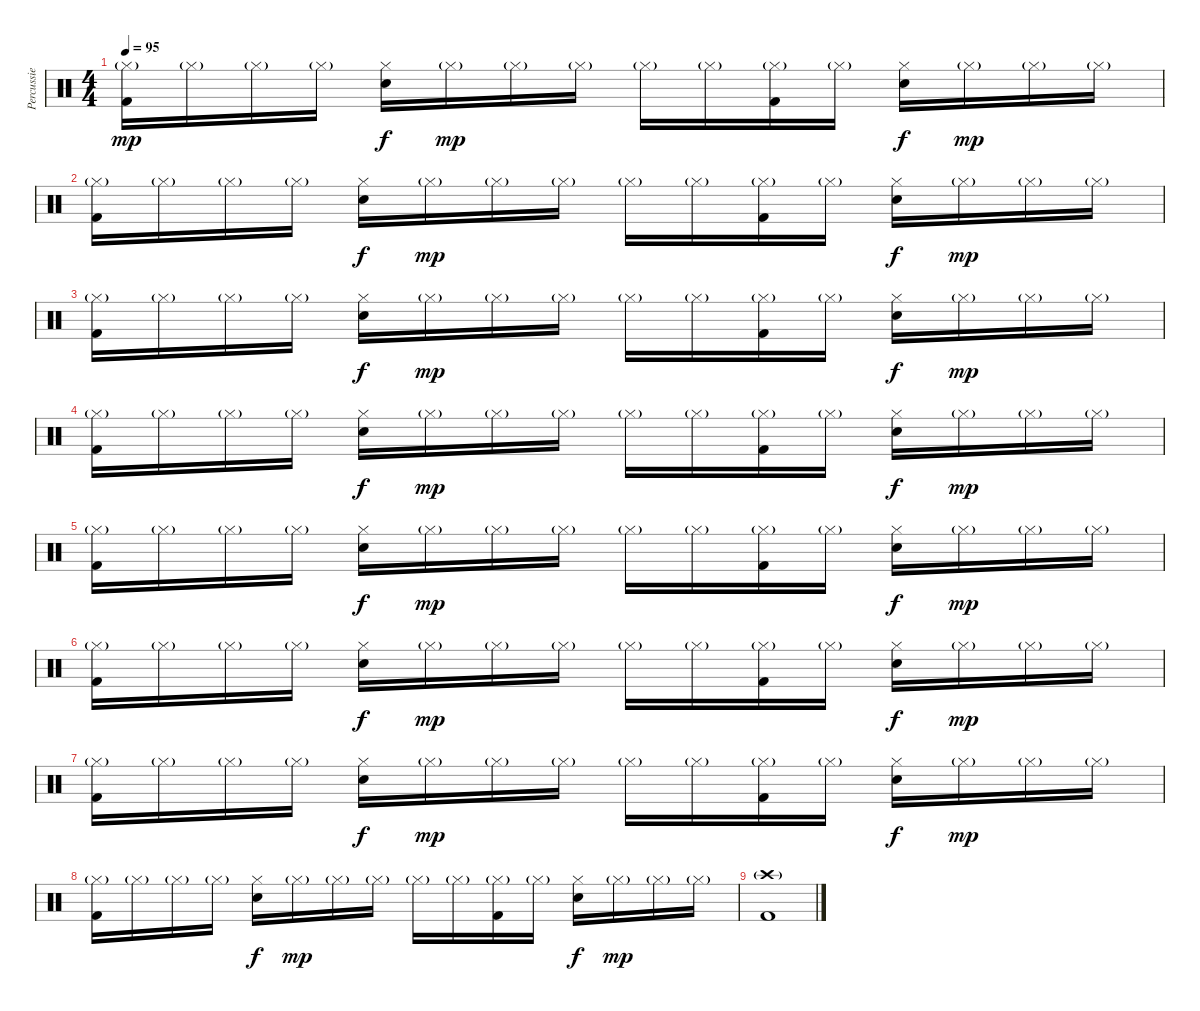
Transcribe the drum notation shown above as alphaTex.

\track ("Percussie" "Percussie") {instrument percussion}
\staff {score}
\articulation defaults
\ts (4 4)
\tempo 95
\clef neutral
\ks c
("Hi-Hat (closed)"{g} "Kick (hit) 2").16{dy mp} "Hi-Hat (closed)"{g}.16 "Hi-Hat (closed)"{g}.16 "Hi-Hat (closed)"{g}.16 ("Hi-Hat (closed)" "Snare (hit) 2").16{dy f} "Hi-Hat (closed)"{g}.16{dy mp} "Hi-Hat (closed)"{g}.16 "Hi-Hat (closed)"{g}.16 "Hi-Hat (closed)"{g}.16 "Hi-Hat (closed)"{g}.16 ("Hi-Hat (closed)"{g} "Kick (hit) 2").16 "Hi-Hat (closed)"{g}.16 ("Hi-Hat (closed)" "Snare (hit) 2").16{dy f} "Hi-Hat (closed)"{g}.16{dy mp} "Hi-Hat (closed)"{g}.16 "Hi-Hat (closed)"{g}.16 |
("Hi-Hat (closed)"{g} "Kick (hit) 2").16 "Hi-Hat (closed)"{g}.16 "Hi-Hat (closed)"{g}.16 "Hi-Hat (closed)"{g}.16 ("Hi-Hat (closed)" "Snare (hit) 2").16{dy f} "Hi-Hat (closed)"{g}.16{dy mp} "Hi-Hat (closed)"{g}.16 "Hi-Hat (closed)"{g}.16 "Hi-Hat (closed)"{g}.16 "Hi-Hat (closed)"{g}.16 ("Hi-Hat (closed)"{g} "Kick (hit) 2").16 "Hi-Hat (closed)"{g}.16 ("Hi-Hat (closed)" "Snare (hit) 2").16{dy f} "Hi-Hat (closed)"{g}.16{dy mp} "Hi-Hat (closed)"{g}.16 "Hi-Hat (closed)"{g}.16 |
("Hi-Hat (closed)"{g} "Kick (hit) 2").16 "Hi-Hat (closed)"{g}.16 "Hi-Hat (closed)"{g}.16 "Hi-Hat (closed)"{g}.16 ("Hi-Hat (closed)" "Snare (hit) 2").16{dy f} "Hi-Hat (closed)"{g}.16{dy mp} "Hi-Hat (closed)"{g}.16 "Hi-Hat (closed)"{g}.16 "Hi-Hat (closed)"{g}.16 "Hi-Hat (closed)"{g}.16 ("Hi-Hat (closed)"{g} "Kick (hit) 2").16 "Hi-Hat (closed)"{g}.16 ("Hi-Hat (closed)" "Snare (hit) 2").16{dy f} "Hi-Hat (closed)"{g}.16{dy mp} "Hi-Hat (closed)"{g}.16 "Hi-Hat (closed)"{g}.16 |
("Hi-Hat (closed)"{g} "Kick (hit) 2").16 "Hi-Hat (closed)"{g}.16 "Hi-Hat (closed)"{g}.16 "Hi-Hat (closed)"{g}.16 ("Hi-Hat (closed)" "Snare (hit) 2").16{dy f} "Hi-Hat (closed)"{g}.16{dy mp} "Hi-Hat (closed)"{g}.16 "Hi-Hat (closed)"{g}.16 "Hi-Hat (closed)"{g}.16 "Hi-Hat (closed)"{g}.16 ("Hi-Hat (closed)"{g} "Kick (hit) 2").16 "Hi-Hat (closed)"{g}.16 ("Hi-Hat (closed)" "Snare (hit) 2").16{dy f} "Hi-Hat (closed)"{g}.16{dy mp} "Hi-Hat (closed)"{g}.16 "Hi-Hat (closed)"{g}.16 |
("Hi-Hat (closed)"{g} "Kick (hit) 2").16 "Hi-Hat (closed)"{g}.16 "Hi-Hat (closed)"{g}.16 "Hi-Hat (closed)"{g}.16 ("Hi-Hat (closed)" "Snare (hit) 2").16{dy f} "Hi-Hat (closed)"{g}.16{dy mp} "Hi-Hat (closed)"{g}.16 "Hi-Hat (closed)"{g}.16 "Hi-Hat (closed)"{g}.16 "Hi-Hat (closed)"{g}.16 ("Hi-Hat (closed)"{g} "Kick (hit) 2").16 "Hi-Hat (closed)"{g}.16 ("Hi-Hat (closed)" "Snare (hit) 2").16{dy f} "Hi-Hat (closed)"{g}.16{dy mp} "Hi-Hat (closed)"{g}.16 "Hi-Hat (closed)"{g}.16 |
("Hi-Hat (closed)"{g} "Kick (hit) 2").16 "Hi-Hat (closed)"{g}.16 "Hi-Hat (closed)"{g}.16 "Hi-Hat (closed)"{g}.16 ("Hi-Hat (closed)" "Snare (hit) 2").16{dy f} "Hi-Hat (closed)"{g}.16{dy mp} "Hi-Hat (closed)"{g}.16 "Hi-Hat (closed)"{g}.16 "Hi-Hat (closed)"{g}.16 "Hi-Hat (closed)"{g}.16 ("Hi-Hat (closed)"{g} "Kick (hit) 2").16 "Hi-Hat (closed)"{g}.16 ("Hi-Hat (closed)" "Snare (hit) 2").16{dy f} "Hi-Hat (closed)"{g}.16{dy mp} "Hi-Hat (closed)"{g}.16 "Hi-Hat (closed)"{g}.16 |
("Hi-Hat (closed)"{g} "Kick (hit) 2").16 "Hi-Hat (closed)"{g}.16 "Hi-Hat (closed)"{g}.16 "Hi-Hat (closed)"{g}.16 ("Hi-Hat (closed)" "Snare (hit) 2").16{dy f} "Hi-Hat (closed)"{g}.16{dy mp} "Hi-Hat (closed)"{g}.16 "Hi-Hat (closed)"{g}.16 "Hi-Hat (closed)"{g}.16 "Hi-Hat (closed)"{g}.16 ("Hi-Hat (closed)"{g} "Kick (hit) 2").16 "Hi-Hat (closed)"{g}.16 ("Hi-Hat (closed)" "Snare (hit) 2").16{dy f} "Hi-Hat (closed)"{g}.16{dy mp} "Hi-Hat (closed)"{g}.16 "Hi-Hat (closed)"{g}.16 |
("Hi-Hat (closed)"{g} "Kick (hit) 2").16 "Hi-Hat (closed)"{g}.16 "Hi-Hat (closed)"{g}.16 "Hi-Hat (closed)"{g}.16 ("Hi-Hat (closed)" "Snare (hit) 2").16{dy f} "Hi-Hat (closed)"{g}.16{dy mp} "Hi-Hat (closed)"{g}.16 "Hi-Hat (closed)"{g}.16 "Hi-Hat (closed)"{g}.16 "Hi-Hat (closed)"{g}.16 ("Hi-Hat (closed)"{g} "Kick (hit) 2").16 "Hi-Hat (closed)"{g}.16 ("Hi-Hat (closed)" "Snare (hit) 2").16{dy f} "Hi-Hat (closed)"{g}.16{dy mp} "Hi-Hat (closed)"{g}.16 "Hi-Hat (closed)"{g}.16 |
("Crash high (hit)"{g} "Kick (hit) 2").1
